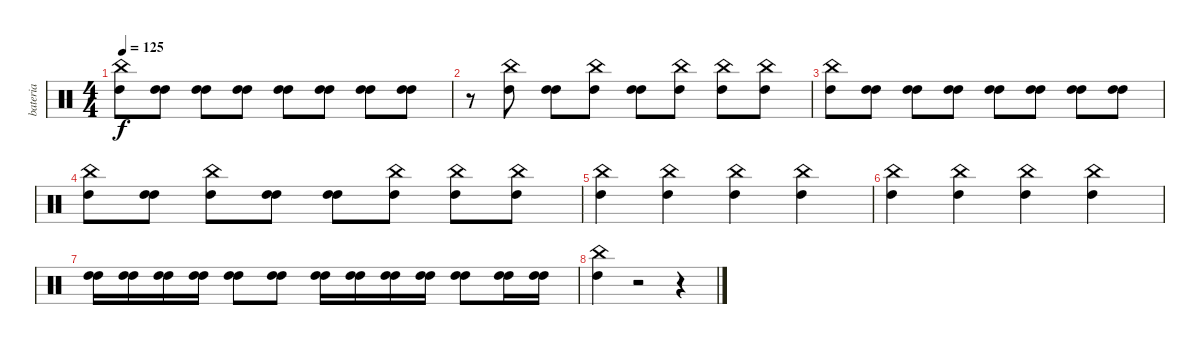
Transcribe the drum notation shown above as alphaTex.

\track ("bateria" "bateria") {instrument percussion}
\staff {score}
\articulation defaults
\ts (4 4)
\tempo 125
\clef neutral
\ks c
("China (hit)" "High Tom (hit)").8{dy f} ("High Tom (hit)" "High Tom (hit)").8 ("High Tom (hit)" "High Tom (hit)").8 ("High Tom (hit)" "High Tom (hit)").8 ("High Tom (hit)" "High Tom (hit)").8 ("High Tom (hit)" "High Tom (hit)").8 ("High Tom (hit)" "High Tom (hit)").8 ("High Tom (hit)" "High Tom (hit)").8 |
r.8 ("China (hit)" "High Tom (hit)").8 ("High Tom (hit)" "High Tom (hit)").8 ("China (hit)" "High Tom (hit)").8 ("High Tom (hit)" "High Tom (hit)").8 ("China (hit)" "High Tom (hit)").8 ("China (hit)" "High Tom (hit)").8 ("China (hit)" "High Tom (hit)").8 |
("China (hit)" "High Tom (hit)").8 ("High Tom (hit)" "High Tom (hit)").8 ("High Tom (hit)" "High Tom (hit)").8 ("High Tom (hit)" "High Tom (hit)").8 ("High Tom (hit)" "High Tom (hit)").8 ("High Tom (hit)" "High Tom (hit)").8 ("High Tom (hit)" "High Tom (hit)").8 ("High Tom (hit)" "High Tom (hit)").8 |
("China (hit)" "High Tom (hit)").8 ("High Tom (hit)" "High Tom (hit)").8 ("China (hit)" "High Tom (hit)").8 ("High Tom (hit)" "High Tom (hit)").8 ("High Tom (hit)" "High Tom (hit)").8 ("China (hit)" "High Tom (hit)").8 ("China (hit)" "High Tom (hit)").8 ("China (hit)" "High Tom (hit)").8 |
("China (hit)" "High Tom (hit)").4 ("China (hit)" "High Tom (hit)").4 ("China (hit)" "High Tom (hit)").4 ("China (hit)" "High Tom (hit)").4 |
("China (hit)" "High Tom (hit)").4 ("China (hit)" "High Tom (hit)").4 ("China (hit)" "High Tom (hit)").4 ("China (hit)" "High Tom (hit)").4 |
("High Tom (hit)" "High Tom (hit)").16 ("High Tom (hit)" "High Tom (hit)").16 ("High Tom (hit)" "High Tom (hit)").16 ("High Tom (hit)" "High Tom (hit)").16 ("High Tom (hit)" "High Tom (hit)").8 ("High Tom (hit)" "High Tom (hit)").8 ("High Tom (hit)" "High Tom (hit)").16 ("High Tom (hit)" "High Tom (hit)").16 ("High Tom (hit)" "High Tom (hit)").16 ("High Tom (hit)" "High Tom (hit)").16 ("High Tom (hit)" "High Tom (hit)").8 ("High Tom (hit)" "High Tom (hit)").16 ("High Tom (hit)" "High Tom (hit)").16 |
("China (hit)" "High Tom (hit)").4 r.2 r.4
